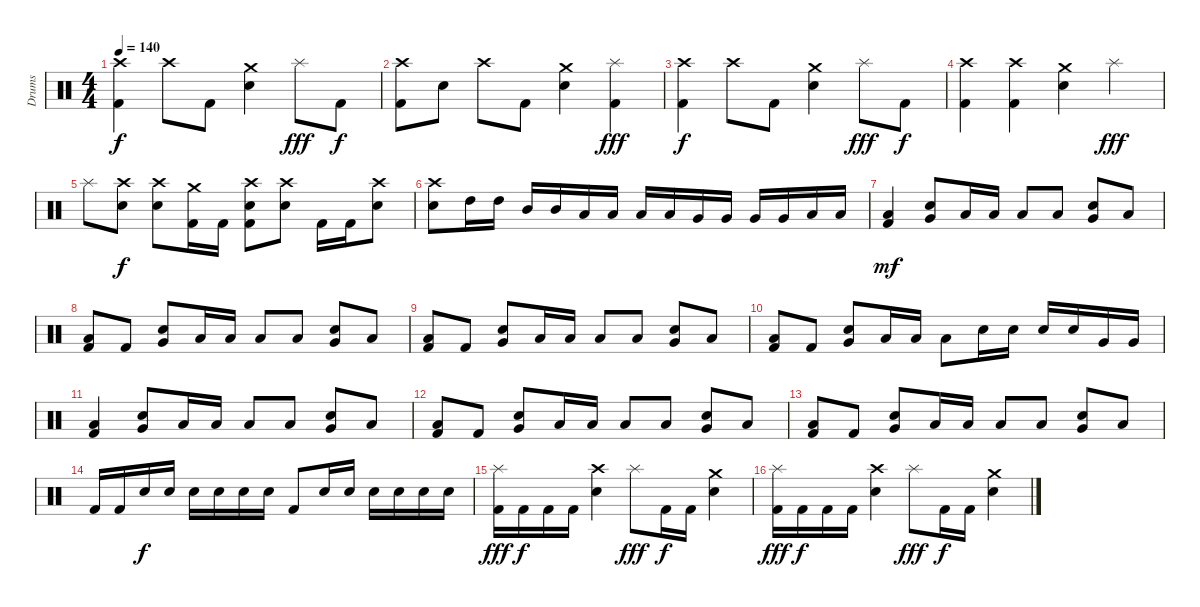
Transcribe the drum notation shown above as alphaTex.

\track ("Drums" "Drums") {instrument percussion}
\staff {score}
\articulation defaults
\ts (4 4)
\tempo 140
\clef neutral
\ks c
("Crash high (hit)" "Kick (hit) 2").4{dy f} "Crash high (hit)".8 "Kick (hit) 2".8 ("Crash medium (hit)" "Electric Snare (hit)").4 "Splash (hit)".8{dy fff} "Kick (hit) 2".8{dy f} |
("Crash high (hit)" "Kick (hit) 2").8 "Electric Snare (hit)".8 "Crash high (hit)".8 "Kick (hit) 2".8 ("Crash medium (hit)" "Electric Snare (hit)").4 ("Splash (hit)" "Kick (hit) 2").4{dy fff} |
("Crash high (hit)" "Kick (hit) 2").4{dy f} "Crash high (hit)".8 "Kick (hit) 2".8 ("Crash medium (hit)" "Electric Snare (hit)").4 "Splash (hit)".8{dy fff} "Kick (hit) 2".8{dy f} |
("Crash high (hit)" "Kick (hit) 2").4 ("Crash high (hit)" "Kick (hit) 2").4 ("Crash medium (hit)" "Electric Snare (hit)").4 "Splash (hit)".4{dy fff} |
"Splash (hit)".8 ("Crash high (hit)" "Electric Snare (hit)").8{dy f} ("Crash high (hit)" "Electric Snare (hit)").8 ("Crash medium (hit)" "Kick (hit) 2").16 "Kick (hit) 2".16 ("Crash high (hit)" "Electric Snare (hit)" "Kick (hit) 2").8 ("Crash high (hit)" "Electric Snare (hit)").8 "Kick (hit) 2".16 "Kick (hit) 2".16 ("Crash high (hit)" "Electric Snare (hit)").8 |
("Crash high (hit)" "Electric Snare (hit)").8 "High Tom (hit)".16 "High Tom (hit)".16 "Mid Tom (hit)".16 "Mid Tom (hit)".16 "Low Tom (hit)".16 "Low Tom (hit)".16 "Low Tom (hit)".16 "Low Tom (hit)".16 "Very Low Tom (hit)".16 "Very Low Tom (hit)".16 "Very Low Tom (hit)".16 "Very Low Tom (hit)".16 "Low Floor Tom (hit)".16 "Low Floor Tom (hit)".16 |
("Low Floor Tom (hit)" "Kick (hit) 2").4{dy mf} ("Electric Snare (hit)" "Very Low Tom (hit)").8 "Low Floor Tom (hit)".16 "Low Floor Tom (hit)".16 "Low Floor Tom (hit)".8 "Low Floor Tom (hit)".8 ("Electric Snare (hit)" "Very Low Tom (hit)").8 "Low Floor Tom (hit)".8 |
("Low Floor Tom (hit)" "Kick (hit) 2").8 "Kick (hit) 2".8 ("Electric Snare (hit)" "Very Low Tom (hit)").8 "Low Floor Tom (hit)".16 "Low Floor Tom (hit)".16 "Low Floor Tom (hit)".8 "Low Floor Tom (hit)".8 ("Electric Snare (hit)" "Very Low Tom (hit)").8 "Low Floor Tom (hit)".8 |
("Low Floor Tom (hit)" "Kick (hit) 2").8 "Kick (hit) 2".8 ("Electric Snare (hit)" "Very Low Tom (hit)").8 "Low Floor Tom (hit)".16 "Low Floor Tom (hit)".16 "Low Floor Tom (hit)".8 "Low Floor Tom (hit)".8 ("Electric Snare (hit)" "Very Low Tom (hit)").8 "Low Floor Tom (hit)".8 |
("Low Floor Tom (hit)" "Kick (hit) 2").8 "Kick (hit) 2".8 ("Electric Snare (hit)" "Very Low Tom (hit)").8 "Low Floor Tom (hit)".16 "Low Floor Tom (hit)".16 "Low Floor Tom (hit)".8 "Electric Snare (hit)".16 "Electric Snare (hit)".16 "Electric Snare (hit)".16 "Electric Snare (hit)".16 "Very Low Tom (hit)".16 "Very Low Tom (hit)".16 |
("Low Floor Tom (hit)" "Kick (hit) 2").4 ("Electric Snare (hit)" "Very Low Tom (hit)").8 "Low Floor Tom (hit)".16 "Low Floor Tom (hit)".16 "Low Floor Tom (hit)".8 "Low Floor Tom (hit)".8 ("Electric Snare (hit)" "Very Low Tom (hit)").8 "Low Floor Tom (hit)".8 |
("Low Floor Tom (hit)" "Kick (hit) 2").8 "Kick (hit) 2".8 ("Electric Snare (hit)" "Very Low Tom (hit)").8 "Low Floor Tom (hit)".16 "Low Floor Tom (hit)".16 "Low Floor Tom (hit)".8 "Low Floor Tom (hit)".8 ("Electric Snare (hit)" "Very Low Tom (hit)").8 "Low Floor Tom (hit)".8 |
("Low Floor Tom (hit)" "Kick (hit) 2").8 "Kick (hit) 2".8 ("Electric Snare (hit)" "Very Low Tom (hit)").8 "Low Floor Tom (hit)".16 "Low Floor Tom (hit)".16 "Low Floor Tom (hit)".8 "Low Floor Tom (hit)".8 ("Electric Snare (hit)" "Very Low Tom (hit)").8 "Low Floor Tom (hit)".8 |
"Kick (hit) 2".16 "Kick (hit) 2".16 "Electric Snare (hit)".16{dy f} "Electric Snare (hit)".16 "Electric Snare (hit)".16 "Electric Snare (hit)".16 "Electric Snare (hit)".16 "Electric Snare (hit)".16 "Kick (hit) 2".8 "Electric Snare (hit)".16 "Electric Snare (hit)".16 "Electric Snare (hit)".16 "Electric Snare (hit)".16 "Electric Snare (hit)".16 "Electric Snare (hit)".16 |
("Splash (hit)" "Kick (hit) 2").16{dy fff} "Kick (hit) 2".16{dy f} "Kick (hit) 2".16 "Kick (hit) 2".16 ("Crash high (hit)" "Electric Snare (hit)").4 "Splash (hit)".8{dy fff} "Kick (hit) 2".16{dy f} "Kick (hit) 2".16 ("Crash medium (hit)" "Electric Snare (hit)").4 |
("Splash (hit)" "Kick (hit) 2").16{dy fff} "Kick (hit) 2".16{dy f} "Kick (hit) 2".16 "Kick (hit) 2".16 ("Crash high (hit)" "Electric Snare (hit)").4 "Splash (hit)".8{dy fff} "Kick (hit) 2".16{dy f} "Kick (hit) 2".16 ("Crash medium (hit)" "Electric Snare (hit)").4
